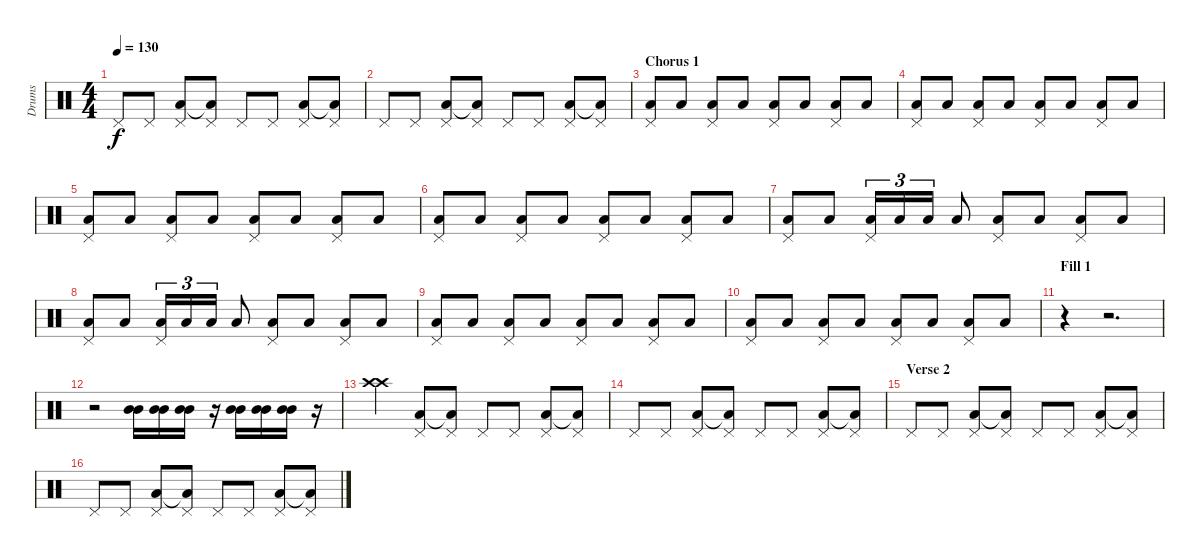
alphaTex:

\track ("Drums" "Drums") {instrument percussion}
\staff {score}
\articulation defaults
\ts (4 4)
\tempo 130
\clef neutral
\ks c "Pedal Hi-Hat (hit)".8{dy f} "Pedal Hi-Hat (hit)".8
("Pedal Hi-Hat (hit)" "Low Floor Tom (hit)").8 ("Pedal Hi-Hat (hit)" "Low Floor Tom (hit)"{t}).8 "Pedal Hi-Hat (hit)".8 "Pedal Hi-Hat (hit)".8 ("Pedal Hi-Hat (hit)" "Low Floor Tom (hit)").8 ("Pedal Hi-Hat (hit)" "Low Floor Tom (hit)"{t}).8 |
"Pedal Hi-Hat (hit)".8 "Pedal Hi-Hat (hit)".8 ("Pedal Hi-Hat (hit)" "Low Floor Tom (hit)").8 ("Pedal Hi-Hat (hit)" "Low Floor Tom (hit)"{t}).8 "Pedal Hi-Hat (hit)".8 "Pedal Hi-Hat (hit)".8 ("Pedal Hi-Hat (hit)" "Low Floor Tom (hit)").8 ("Pedal Hi-Hat (hit)" "Low Floor Tom (hit)"{t}).8 |
\section ("" "Chorus 1")
("Pedal Hi-Hat (hit)" "Low Floor Tom (hit)").8 "Low Floor Tom (hit)".8 ("Pedal Hi-Hat (hit)" "Low Floor Tom (hit)").8 "Low Floor Tom (hit)".8 ("Pedal Hi-Hat (hit)" "Low Floor Tom (hit)").8 "Low Floor Tom (hit)".8 ("Pedal Hi-Hat (hit)" "Low Floor Tom (hit)").8 "Low Floor Tom (hit)".8 |
("Pedal Hi-Hat (hit)" "Low Floor Tom (hit)").8 "Low Floor Tom (hit)".8 ("Pedal Hi-Hat (hit)" "Low Floor Tom (hit)").8 "Low Floor Tom (hit)".8 ("Pedal Hi-Hat (hit)" "Low Floor Tom (hit)").8 "Low Floor Tom (hit)".8 ("Pedal Hi-Hat (hit)" "Low Floor Tom (hit)").8 "Low Floor Tom (hit)".8 |
("Pedal Hi-Hat (hit)" "Low Floor Tom (hit)").8 "Low Floor Tom (hit)".8 ("Pedal Hi-Hat (hit)" "Low Floor Tom (hit)").8 "Low Floor Tom (hit)".8 ("Pedal Hi-Hat (hit)" "Low Floor Tom (hit)").8 "Low Floor Tom (hit)".8 ("Pedal Hi-Hat (hit)" "Low Floor Tom (hit)").8 "Low Floor Tom (hit)".8 |
("Pedal Hi-Hat (hit)" "Low Floor Tom (hit)").8 "Low Floor Tom (hit)".8 ("Pedal Hi-Hat (hit)" "Low Floor Tom (hit)").8 "Low Floor Tom (hit)".8 ("Pedal Hi-Hat (hit)" "Low Floor Tom (hit)").8 "Low Floor Tom (hit)".8 ("Pedal Hi-Hat (hit)" "Low Floor Tom (hit)").8 "Low Floor Tom (hit)".8 |
("Pedal Hi-Hat (hit)" "Low Floor Tom (hit)").8 "Low Floor Tom (hit)".8 ("Pedal Hi-Hat (hit)" "Low Floor Tom (hit)").16{tu (3 2)} "Low Floor Tom (hit)".16{tu (3 2)} "Low Floor Tom (hit)".16{tu (3 2)} "Low Floor Tom (hit)".8 ("Pedal Hi-Hat (hit)" "Low Floor Tom (hit)").8 "Low Floor Tom (hit)".8 ("Pedal Hi-Hat (hit)" "Low Floor Tom (hit)").8 "Low Floor Tom (hit)".8 |
("Pedal Hi-Hat (hit)" "Low Floor Tom (hit)").8 "Low Floor Tom (hit)".8 ("Pedal Hi-Hat (hit)" "Low Floor Tom (hit)").16{tu (3 2)} "Low Floor Tom (hit)".16{tu (3 2)} "Low Floor Tom (hit)".16{tu (3 2)} "Low Floor Tom (hit)".8 ("Pedal Hi-Hat (hit)" "Low Floor Tom (hit)").8 "Low Floor Tom (hit)".8 ("Pedal Hi-Hat (hit)" "Low Floor Tom (hit)").8 "Low Floor Tom (hit)".8 |
("Pedal Hi-Hat (hit)" "Low Floor Tom (hit)").8 "Low Floor Tom (hit)".8 ("Pedal Hi-Hat (hit)" "Low Floor Tom (hit)").8 "Low Floor Tom (hit)".8 ("Pedal Hi-Hat (hit)" "Low Floor Tom (hit)").8 "Low Floor Tom (hit)".8 ("Pedal Hi-Hat (hit)" "Low Floor Tom (hit)").8 "Low Floor Tom (hit)".8 |
("Pedal Hi-Hat (hit)" "Low Floor Tom (hit)").8 "Low Floor Tom (hit)".8 ("Pedal Hi-Hat (hit)" "Low Floor Tom (hit)").8 "Low Floor Tom (hit)".8 ("Pedal Hi-Hat (hit)" "Low Floor Tom (hit)").8 "Low Floor Tom (hit)".8 ("Pedal Hi-Hat (hit)" "Low Floor Tom (hit)").8 "Low Floor Tom (hit)".8 |
\section ("" "Fill 1")
r.4 r.2{d} |
r.2 ("Mid Tom (hit)" "Mid Tom (hit)").16 ("Mid Tom (hit)" "Mid Tom (hit)").16 ("Mid Tom (hit)" "Mid Tom (hit)").16 r.16 ("Mid Tom (hit)" "Mid Tom (hit)").16 ("Mid Tom (hit)" "Mid Tom (hit)").16 ("Mid Tom (hit)" "Mid Tom (hit)").16 r.16 |
("Crash high (hit)" "Crash high (hit)").4 ("Pedal Hi-Hat (hit)" "Low Floor Tom (hit)").8 ("Pedal Hi-Hat (hit)" "Low Floor Tom (hit)"{t}).8 "Pedal Hi-Hat (hit)".8 "Pedal Hi-Hat (hit)".8 ("Pedal Hi-Hat (hit)" "Low Floor Tom (hit)").8 ("Pedal Hi-Hat (hit)" "Low Floor Tom (hit)"{t}).8 |
"Pedal Hi-Hat (hit)".8 "Pedal Hi-Hat (hit)".8 ("Pedal Hi-Hat (hit)" "Low Floor Tom (hit)").8 ("Pedal Hi-Hat (hit)" "Low Floor Tom (hit)"{t}).8 "Pedal Hi-Hat (hit)".8 "Pedal Hi-Hat (hit)".8 ("Pedal Hi-Hat (hit)" "Low Floor Tom (hit)").8 ("Pedal Hi-Hat (hit)" "Low Floor Tom (hit)"{t}).8 |
\section ("" "Verse 2")
"Pedal Hi-Hat (hit)".8 "Pedal Hi-Hat (hit)".8 ("Pedal Hi-Hat (hit)" "Low Floor Tom (hit)").8 ("Pedal Hi-Hat (hit)" "Low Floor Tom (hit)"{t}).8 "Pedal Hi-Hat (hit)".8 "Pedal Hi-Hat (hit)".8 ("Pedal Hi-Hat (hit)" "Low Floor Tom (hit)").8 ("Pedal Hi-Hat (hit)" "Low Floor Tom (hit)"{t}).8 |
"Pedal Hi-Hat (hit)".8 "Pedal Hi-Hat (hit)".8 ("Pedal Hi-Hat (hit)" "Low Floor Tom (hit)").8 ("Pedal Hi-Hat (hit)" "Low Floor Tom (hit)"{t}).8 "Pedal Hi-Hat (hit)".8 "Pedal Hi-Hat (hit)".8 ("Pedal Hi-Hat (hit)" "Low Floor Tom (hit)").8 ("Pedal Hi-Hat (hit)" "Low Floor Tom (hit)"{t}).8
